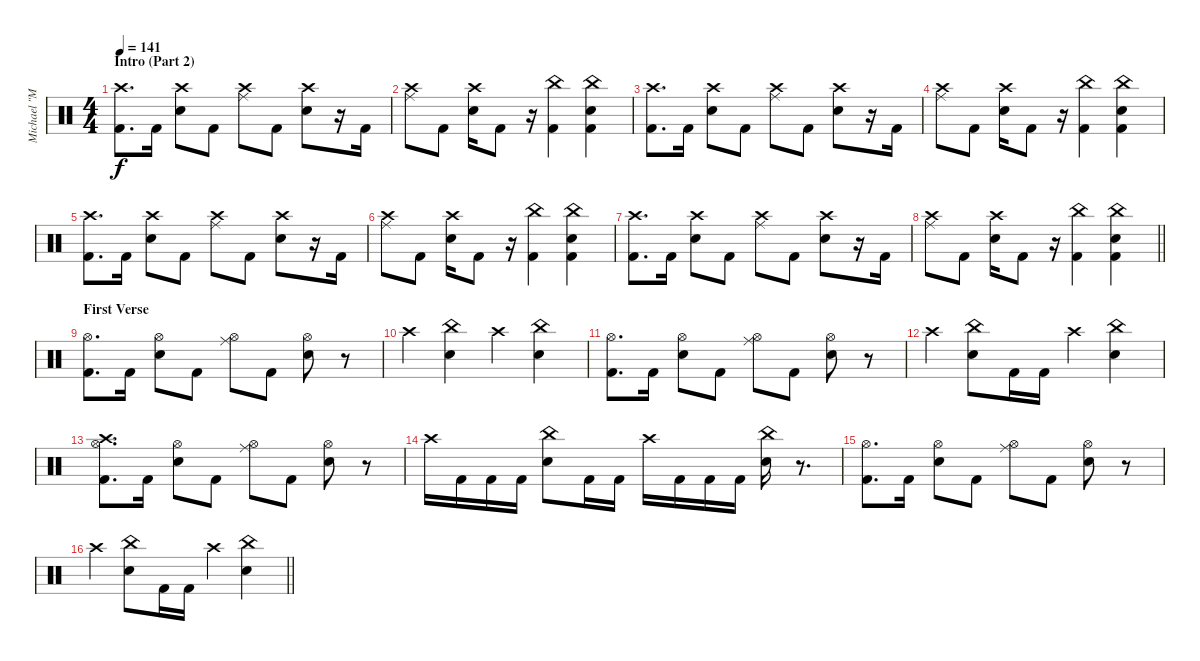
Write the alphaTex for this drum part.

\track ("Michael \"Moose\" Thomas" "Michael \"M") {instrument percussion}
\staff {score}
\articulation defaults
\ts (4 4)
\section ("" "Intro (Part 2)")
\tempo 141
\clef neutral
\ks c
("Crash high (hit)" "Kick (hit) 2").8{d dy f} "Kick (hit) 2".16 ("Crash high (hit)" "Snare (hit) 2").8 "Kick (hit) 2".8 ("Crash high (hit)" "Ride (middle)").8 "Kick (hit) 2".8 ("Crash high (hit)" "Snare (hit) 2").8 r.16 "Kick (hit) 2".16 |
("Crash high (hit)" "Ride (middle)").8 "Kick (hit) 2".8 ("Crash high (hit)" "Snare (hit) 2").16 "Kick (hit) 2".8 r.16 ("China (hit)" "Kick (hit) 2").4 ("China (hit)" "Snare (hit) 2" "Kick (hit) 2").4 |
("Crash high (hit)" "Kick (hit) 2").8{d} "Kick (hit) 2".16 ("Crash high (hit)" "Snare (hit) 2").8 "Kick (hit) 2".8 ("Crash high (hit)" "Ride (middle)").8 "Kick (hit) 2".8 ("Crash high (hit)" "Snare (hit) 2").8 r.16 "Kick (hit) 2".16 |
("Crash high (hit)" "Ride (middle)").8 "Kick (hit) 2".8 ("Crash high (hit)" "Snare (hit) 2").16 "Kick (hit) 2".8 r.16 ("China (hit)" "Kick (hit) 2").4 ("China (hit)" "Snare (hit) 2" "Kick (hit) 2").4 |
("Crash high (hit)" "Kick (hit) 2").8{d} "Kick (hit) 2".16 ("Crash high (hit)" "Snare (hit) 2").8 "Kick (hit) 2".8 ("Crash high (hit)" "Ride (middle)").8 "Kick (hit) 2".8 ("Crash high (hit)" "Snare (hit) 2").8 r.16 "Kick (hit) 2".16 |
("Crash high (hit)" "Ride (middle)").8 "Kick (hit) 2".8 ("Crash high (hit)" "Snare (hit) 2").16 "Kick (hit) 2".8 r.16 ("China (hit)" "Kick (hit) 2").4 ("China (hit)" "Snare (hit) 2" "Kick (hit) 2").4 |
("Crash high (hit)" "Kick (hit) 2").8{d} "Kick (hit) 2".16 ("Crash high (hit)" "Snare (hit) 2").8 "Kick (hit) 2".8 ("Crash high (hit)" "Ride (middle)").8 "Kick (hit) 2".8 ("Crash high (hit)" "Snare (hit) 2").8 r.16 "Kick (hit) 2".16 |
\barLineRight lightlight
("Crash high (hit)" "Ride (middle)").8 "Kick (hit) 2".8 ("Crash high (hit)" "Snare (hit) 2").16 "Kick (hit) 2".8 r.16 ("China (hit)" "Kick (hit) 2").4 ("China (hit)" "Snare (hit) 2" "Kick (hit) 2").4 |
\section ("" "First Verse")
("Hi-Hat (open)" "Kick (hit) 2").8{d} "Kick (hit) 2".16 ("Hi-Hat (open)" "Snare (hit) 2").8 "Kick (hit) 2".8 ("Hi-Hat (open)" "Ride (middle)").8 "Kick (hit) 2".8 ("Hi-Hat (open)" "Snare (hit) 2").8 r.8 |
"Crash high (hit)".4 ("China (hit)" "Snare (hit) 2").4 "Crash high (hit)".4 ("China (hit)" "Snare (hit) 2").4 |
("Hi-Hat (open)" "Kick (hit) 2").8{d} "Kick (hit) 2".16 ("Hi-Hat (open)" "Snare (hit) 2").8 "Kick (hit) 2".8 ("Hi-Hat (open)" "Ride (middle)").8 "Kick (hit) 2".8 ("Hi-Hat (open)" "Snare (hit) 2").8 r.8 |
"Crash high (hit)".4 ("China (hit)" "Snare (hit) 2").8 "Kick (hit) 2".16 "Kick (hit) 2".16 "Crash high (hit)".4 ("China (hit)" "Snare (hit) 2").4 |
("Crash high (hit)" "Hi-Hat (open)" "Kick (hit) 2").8{d} "Kick (hit) 2".16 ("Hi-Hat (open)" "Snare (hit) 2").8 "Kick (hit) 2".8 ("Hi-Hat (open)" "Ride (middle)").8 "Kick (hit) 2".8 ("Hi-Hat (open)" "Snare (hit) 2").8 r.8 |
"Crash high (hit)".16 "Kick (hit) 2".16 "Kick (hit) 2".16 "Kick (hit) 2".16 ("China (hit)" "Snare (hit) 2").8 "Kick (hit) 2".16 "Kick (hit) 2".16 "Crash high (hit)".16 "Kick (hit) 2".16 "Kick (hit) 2".16 "Kick (hit) 2".16 ("China (hit)" "Snare (hit) 2").16 r.8{d} |
("Hi-Hat (open)" "Kick (hit) 2").8{d} "Kick (hit) 2".16 ("Hi-Hat (open)" "Snare (hit) 2").8 "Kick (hit) 2".8 ("Hi-Hat (open)" "Ride (middle)").8 "Kick (hit) 2".8 ("Hi-Hat (open)" "Snare (hit) 2").8 r.8 |
\barLineRight lightlight "Crash high (hit)".4
("China (hit)" "Snare (hit) 2").8 "Kick (hit) 2".16 "Kick (hit) 2".16 "Crash high (hit)".4 ("China (hit)" "Snare (hit) 2").4
